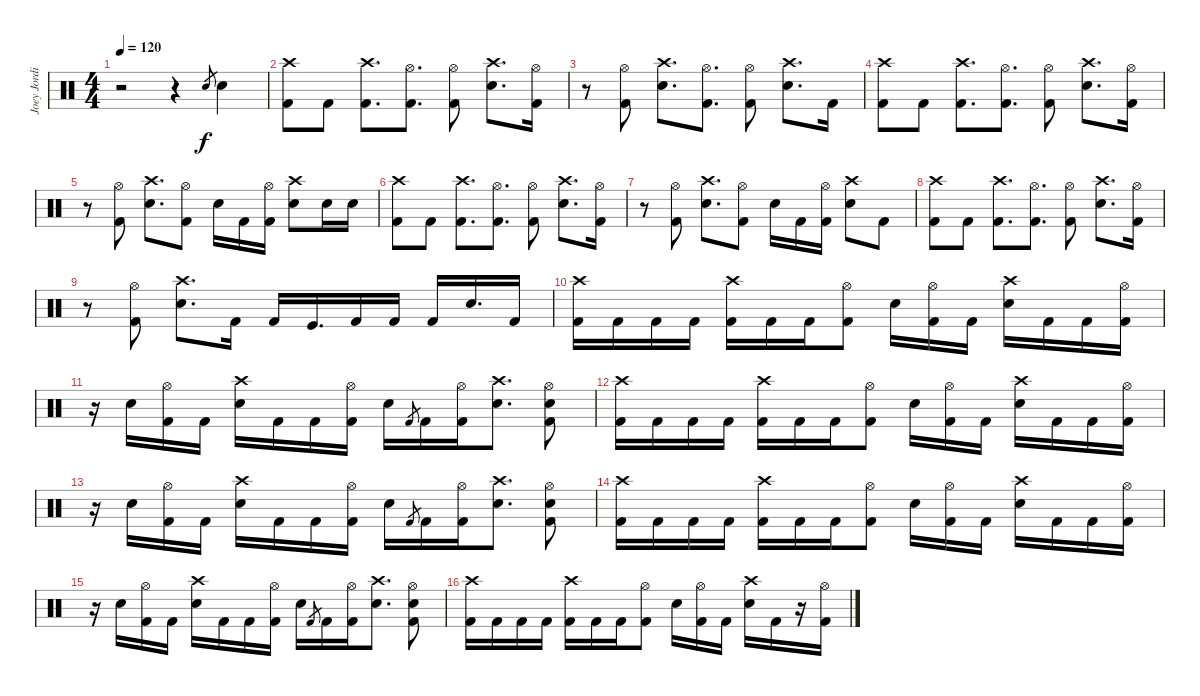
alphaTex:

\track ("Joey Jordison   #1" "Joey Jordi") {instrument percussion}
\staff {score}
\articulation defaults
\ts (4 4)
\tempo 120
\clef neutral
\ks c
r.2{dy f} r.4 "Electric Snare (hit)".8{gr} "Electric Snare (hit)".4 |
("Crash high (hit)" "Kick (hit) 2").8 "Kick (hit) 2".8 ("Crash high (hit)" "Kick (hit) 2").8{d} ("Hi-Hat (open)" "Kick (hit) 2").8{d} ("Hi-Hat (open)" "Kick (hit) 2").8 ("Crash high (hit)" "Electric Snare (hit)").8{d} ("Hi-Hat (open)" "Kick (hit) 2").16 |
r.8 ("Hi-Hat (open)" "Kick (hit) 2").8 ("Crash high (hit)" "Electric Snare (hit)").8{d} ("Hi-Hat (open)" "Kick (hit) 2").8{d} ("Hi-Hat (open)" "Kick (hit) 2").8 ("Crash high (hit)" "Electric Snare (hit)").8{d} "Kick (hit) 2".16 |
("Crash high (hit)" "Kick (hit) 2").8 "Kick (hit) 2".8 ("Crash high (hit)" "Kick (hit) 2").8{d} ("Hi-Hat (open)" "Kick (hit) 2").8{d} ("Hi-Hat (open)" "Kick (hit) 2").8 ("Crash high (hit)" "Electric Snare (hit)").8{d} ("Hi-Hat (open)" "Kick (hit) 2").16 |
r.8 ("Hi-Hat (open)" "Kick (hit) 2").8 ("Crash high (hit)" "Electric Snare (hit)").8{d} ("Hi-Hat (open)" "Kick (hit) 2").8 "Electric Snare (hit)".16 "Kick (hit) 2".16 ("Hi-Hat (open)" "Kick (hit) 2").16 ("Crash high (hit)" "Electric Snare (hit)").8 "Electric Snare (hit)".16 "Electric Snare (hit)".16 |
("Crash high (hit)" "Kick (hit) 2").8 "Kick (hit) 2".8 ("Crash high (hit)" "Kick (hit) 2").8{d} ("Hi-Hat (open)" "Kick (hit) 2").8{d} ("Hi-Hat (open)" "Kick (hit) 2").8 ("Crash high (hit)" "Electric Snare (hit)").8{d} ("Hi-Hat (open)" "Kick (hit) 2").16 |
r.8 ("Hi-Hat (open)" "Kick (hit) 2").8 ("Crash high (hit)" "Electric Snare (hit)").8{d} ("Hi-Hat (open)" "Kick (hit) 2").8 "Electric Snare (hit)".16 "Kick (hit) 2".16 ("Hi-Hat (open)" "Kick (hit) 2").16 ("Crash high (hit)" "Electric Snare (hit)").8 "Kick (hit) 2".8 |
("Crash high (hit)" "Kick (hit) 2").8 "Kick (hit) 2".8 ("Crash high (hit)" "Kick (hit) 2").8{d} ("Hi-Hat (open)" "Kick (hit) 2").8{d} ("Hi-Hat (open)" "Kick (hit) 2").8 ("Crash high (hit)" "Electric Snare (hit)").8{d} ("Hi-Hat (open)" "Kick (hit) 2").16 |
r.8 ("Hi-Hat (open)" "Kick (hit) 2").8 ("Crash high (hit)" "Electric Snare (hit)").8{d} "Kick (hit) 2".16 "Kick (hit) 2".16 "Kick (hit)".16{d} "Kick (hit) 2".16 "Kick (hit) 2".16 "Kick (hit) 2".16 "Electric Snare (hit)".16{d} "Kick (hit) 2".16 |
("Crash high (hit)" "Kick (hit) 2").16 "Kick (hit) 2".16 "Kick (hit) 2".16 "Kick (hit) 2".16 ("Crash high (hit)" "Kick (hit) 2").16 "Kick (hit) 2".16 "Kick (hit) 2".16 ("Hi-Hat (open)" "Kick (hit) 2").8 "Electric Snare (hit)".16 ("Hi-Hat (open)" "Kick (hit) 2").16 "Kick (hit) 2".16 ("Crash high (hit)" "Electric Snare (hit)").16 "Kick (hit) 2".16 "Kick (hit) 2".16 ("Hi-Hat (open)" "Kick (hit) 2").16 |
r.16 "Electric Snare (hit)".16 ("Hi-Hat (open)" "Kick (hit) 2").16 "Kick (hit) 2".16 ("Crash high (hit)" "Electric Snare (hit)").16 "Kick (hit) 2".16 "Kick (hit) 2".16 ("Hi-Hat (open)" "Kick (hit) 2").16 "Electric Snare (hit)".16 "Kick (hit) 2".8{gr} "Kick (hit) 2".16 ("Hi-Hat (open)" "Kick (hit) 2").16 ("Crash high (hit)" "Electric Snare (hit)").8{d} ("Hi-Hat (open)" "Electric Snare (hit)" "Kick (hit) 2").8 |
("Crash high (hit)" "Kick (hit) 2").16 "Kick (hit) 2".16 "Kick (hit) 2".16 "Kick (hit) 2".16 ("Crash high (hit)" "Kick (hit) 2").16 "Kick (hit) 2".16 "Kick (hit) 2".16 ("Hi-Hat (open)" "Kick (hit) 2").8 "Electric Snare (hit)".16 ("Hi-Hat (open)" "Kick (hit) 2").16 "Kick (hit) 2".16 ("Crash high (hit)" "Electric Snare (hit)").16 "Kick (hit) 2".16 "Kick (hit) 2".16 ("Hi-Hat (open)" "Kick (hit) 2").16 |
r.16 "Electric Snare (hit)".16 ("Hi-Hat (open)" "Kick (hit) 2").16 "Kick (hit) 2".16 ("Crash high (hit)" "Electric Snare (hit)").16 "Kick (hit) 2".16 "Kick (hit) 2".16 ("Hi-Hat (open)" "Kick (hit) 2").16 "Electric Snare (hit)".16 "Kick (hit) 2".8{gr} "Kick (hit) 2".16 ("Hi-Hat (open)" "Kick (hit) 2").16 ("Crash high (hit)" "Electric Snare (hit)").8{d} ("Hi-Hat (open)" "Electric Snare (hit)" "Kick (hit) 2").8 |
("Crash high (hit)" "Kick (hit) 2").16 "Kick (hit) 2".16 "Kick (hit) 2".16 "Kick (hit) 2".16 ("Crash high (hit)" "Kick (hit) 2").16 "Kick (hit) 2".16 "Kick (hit) 2".16 ("Hi-Hat (open)" "Kick (hit) 2").8 "Electric Snare (hit)".16 ("Hi-Hat (open)" "Kick (hit) 2").16 "Kick (hit) 2".16 ("Crash high (hit)" "Electric Snare (hit)").16 "Kick (hit) 2".16 "Kick (hit) 2".16 ("Hi-Hat (open)" "Kick (hit) 2").16 |
r.16 "Electric Snare (hit)".16 ("Hi-Hat (open)" "Kick (hit) 2").16 "Kick (hit) 2".16 ("Crash high (hit)" "Electric Snare (hit)").16 "Kick (hit) 2".16 "Kick (hit) 2".16 ("Hi-Hat (open)" "Kick (hit) 2").16 "Electric Snare (hit)".16 "Kick (hit) 2".8{gr} "Kick (hit) 2".16 ("Hi-Hat (open)" "Kick (hit) 2").16 ("Crash high (hit)" "Electric Snare (hit)").8{d} ("Hi-Hat (open)" "Electric Snare (hit)" "Kick (hit) 2").8 |
("Crash high (hit)" "Kick (hit) 2").16 "Kick (hit) 2".16 "Kick (hit) 2".16 "Kick (hit) 2".16 ("Crash high (hit)" "Kick (hit) 2").16 "Kick (hit) 2".16 "Kick (hit) 2".16 ("Hi-Hat (open)" "Kick (hit) 2").8 "Electric Snare (hit)".16 ("Hi-Hat (open)" "Kick (hit) 2").16 "Kick (hit) 2".16 ("Crash high (hit)" "Electric Snare (hit)").16 "Kick (hit) 2".16 r.16 ("Hi-Hat (open)" "Kick (hit) 2").16
